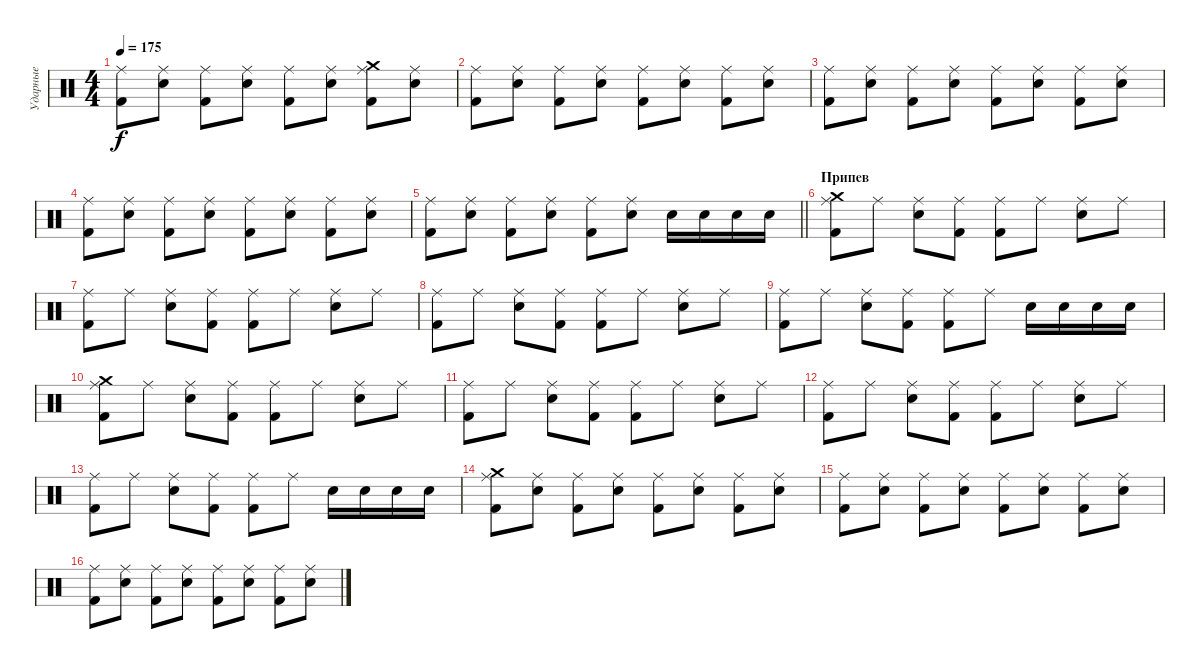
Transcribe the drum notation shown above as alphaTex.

\track ("Ударные" "Ударные") {instrument percussion}
\staff {score}
\articulation defaults
\ts (4 4)
\tempo 175
\clef neutral
\ks c
("Ride (middle)" "Kick (hit) 2").8{dy f} ("Ride (middle)" "Electric Snare (hit)").8 ("Ride (middle)" "Kick (hit) 2").8 ("Ride (middle)" "Electric Snare (hit)").8 ("Ride (middle)" "Kick (hit) 2").8 ("Ride (middle)" "Electric Snare (hit)").8 ("Ride (middle)" "Crash medium (hit)" "Kick (hit) 2").8 ("Ride (middle)" "Electric Snare (hit)").8 |
("Ride (middle)" "Kick (hit) 2").8 ("Ride (middle)" "Electric Snare (hit)").8 ("Ride (middle)" "Kick (hit) 2").8 ("Ride (middle)" "Electric Snare (hit)").8 ("Ride (middle)" "Kick (hit) 2").8 ("Ride (middle)" "Electric Snare (hit)").8 ("Ride (middle)" "Kick (hit) 2").8 ("Ride (middle)" "Electric Snare (hit)").8 |
("Ride (middle)" "Kick (hit) 2").8 ("Ride (middle)" "Electric Snare (hit)").8 ("Ride (middle)" "Kick (hit) 2").8 ("Ride (middle)" "Electric Snare (hit)").8 ("Ride (middle)" "Kick (hit) 2").8 ("Ride (middle)" "Electric Snare (hit)").8 ("Ride (middle)" "Kick (hit) 2").8 ("Ride (middle)" "Electric Snare (hit)").8 |
("Ride (middle)" "Kick (hit) 2").8 ("Ride (middle)" "Electric Snare (hit)").8 ("Ride (middle)" "Kick (hit) 2").8 ("Ride (middle)" "Electric Snare (hit)").8 ("Ride (middle)" "Kick (hit) 2").8 ("Ride (middle)" "Electric Snare (hit)").8 ("Ride (middle)" "Kick (hit) 2").8 ("Ride (middle)" "Electric Snare (hit)").8 |
\barLineRight lightlight
("Ride (middle)" "Kick (hit) 2").8 ("Ride (middle)" "Electric Snare (hit)").8 ("Ride (middle)" "Kick (hit) 2").8 ("Ride (middle)" "Electric Snare (hit)").8 ("Ride (middle)" "Kick (hit) 2").8 ("Ride (middle)" "Electric Snare (hit)").8 "Electric Snare (hit)".16 "Electric Snare (hit)".16 "Electric Snare (hit)".16 "Electric Snare (hit)".16 |
\section ("" "Припев")
("Ride (middle)" "Crash medium (hit)" "Kick (hit) 2").8 "Ride (middle)".8 ("Ride (middle)" "Electric Snare (hit)").8 ("Ride (middle)" "Kick (hit) 2").8 ("Ride (middle)" "Kick (hit) 2").8 "Ride (middle)".8 ("Ride (middle)" "Electric Snare (hit)").8 "Ride (middle)".8 |
("Ride (middle)" "Kick (hit) 2").8 "Ride (middle)".8 ("Ride (middle)" "Electric Snare (hit)").8 ("Ride (middle)" "Kick (hit) 2").8 ("Ride (middle)" "Kick (hit) 2").8 "Ride (middle)".8 ("Ride (middle)" "Electric Snare (hit)").8 "Ride (middle)".8 |
("Ride (middle)" "Kick (hit) 2").8 "Ride (middle)".8 ("Ride (middle)" "Electric Snare (hit)").8 ("Ride (middle)" "Kick (hit) 2").8 ("Ride (middle)" "Kick (hit) 2").8 "Ride (middle)".8 ("Ride (middle)" "Electric Snare (hit)").8 "Ride (middle)".8 |
("Ride (middle)" "Kick (hit) 2").8 "Ride (middle)".8 ("Ride (middle)" "Electric Snare (hit)").8 ("Ride (middle)" "Kick (hit) 2").8 ("Ride (middle)" "Kick (hit) 2").8 "Ride (middle)".8 "Electric Snare (hit)".16 "Electric Snare (hit)".16 "Electric Snare (hit)".16 "Electric Snare (hit)".16 |
("Ride (middle)" "Crash medium (hit)" "Kick (hit) 2").8 "Ride (middle)".8 ("Ride (middle)" "Electric Snare (hit)").8 ("Ride (middle)" "Kick (hit) 2").8 ("Ride (middle)" "Kick (hit) 2").8 "Ride (middle)".8 ("Ride (middle)" "Electric Snare (hit)").8 "Ride (middle)".8 |
("Ride (middle)" "Kick (hit) 2").8 "Ride (middle)".8 ("Ride (middle)" "Electric Snare (hit)").8 ("Ride (middle)" "Kick (hit) 2").8 ("Ride (middle)" "Kick (hit) 2").8 "Ride (middle)".8 ("Ride (middle)" "Electric Snare (hit)").8 "Ride (middle)".8 |
("Ride (middle)" "Kick (hit) 2").8 "Ride (middle)".8 ("Ride (middle)" "Electric Snare (hit)").8 ("Ride (middle)" "Kick (hit) 2").8 ("Ride (middle)" "Kick (hit) 2").8 "Ride (middle)".8 ("Ride (middle)" "Electric Snare (hit)").8 "Ride (middle)".8 |
("Ride (middle)" "Kick (hit) 2").8 "Ride (middle)".8 ("Ride (middle)" "Electric Snare (hit)").8 ("Ride (middle)" "Kick (hit) 2").8 ("Ride (middle)" "Kick (hit) 2").8 "Ride (middle)".8 "Electric Snare (hit)".16 "Electric Snare (hit)".16 "Electric Snare (hit)".16 "Electric Snare (hit)".16 |
("Ride (middle)" "Crash medium (hit)" "Kick (hit) 2").8 ("Ride (middle)" "Electric Snare (hit)").8 ("Ride (middle)" "Kick (hit) 2").8 ("Ride (middle)" "Electric Snare (hit)").8 ("Ride (middle)" "Kick (hit) 2").8 ("Ride (middle)" "Electric Snare (hit)").8 ("Ride (middle)" "Kick (hit) 2").8 ("Ride (middle)" "Electric Snare (hit)").8 |
("Ride (middle)" "Kick (hit) 2").8 ("Ride (middle)" "Electric Snare (hit)").8 ("Ride (middle)" "Kick (hit) 2").8 ("Ride (middle)" "Electric Snare (hit)").8 ("Ride (middle)" "Kick (hit) 2").8 ("Ride (middle)" "Electric Snare (hit)").8 ("Ride (middle)" "Kick (hit) 2").8 ("Ride (middle)" "Electric Snare (hit)").8 |
("Ride (middle)" "Kick (hit) 2").8 ("Ride (middle)" "Electric Snare (hit)").8 ("Ride (middle)" "Kick (hit) 2").8 ("Ride (middle)" "Electric Snare (hit)").8 ("Ride (middle)" "Kick (hit) 2").8 ("Ride (middle)" "Electric Snare (hit)").8 ("Ride (middle)" "Kick (hit) 2").8 ("Ride (middle)" "Electric Snare (hit)").8
